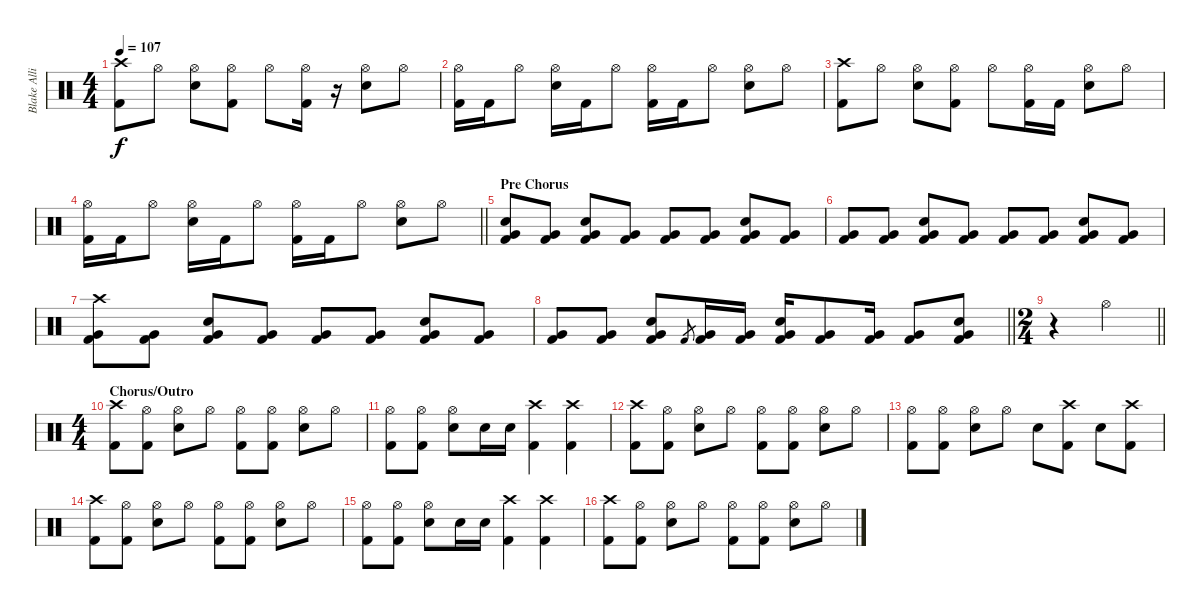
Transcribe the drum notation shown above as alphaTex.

\track ("Blake Allison (Drums)" "Blake Alli") {instrument percussion}
\staff {score}
\articulation defaults
\ts (4 4)
\tempo 107
\clef neutral
\ks c
("Crash high (hit)" "Kick (hit) 2").8{dy f} "Hi-Hat (open)".8 ("Hi-Hat (open)" "Electric Snare (hit)").8 ("Hi-Hat (open)" "Kick (hit) 2").8 "Hi-Hat (open)".8 ("Hi-Hat (open)" "Kick (hit) 2").16 r.16 ("Hi-Hat (open)" "Electric Snare (hit)").8 "Hi-Hat (open)".8 |
("Hi-Hat (open)" "Kick (hit) 2").16 "Kick (hit) 2".16 "Hi-Hat (open)".8 ("Hi-Hat (open)" "Electric Snare (hit)").16 "Kick (hit) 2".16 "Hi-Hat (open)".8 ("Hi-Hat (open)" "Kick (hit) 2").16 "Kick (hit) 2".16 "Hi-Hat (open)".8 ("Hi-Hat (open)" "Electric Snare (hit)").8 "Hi-Hat (open)".8 |
("Crash high (hit)" "Kick (hit) 2").8 "Hi-Hat (open)".8 ("Hi-Hat (open)" "Electric Snare (hit)").8 ("Hi-Hat (open)" "Kick (hit) 2").8 "Hi-Hat (open)".8 ("Hi-Hat (open)" "Kick (hit) 2").16 "Kick (hit) 2".16 ("Hi-Hat (open)" "Electric Snare (hit)").8 "Hi-Hat (open)".8 |
\barLineRight lightlight
("Hi-Hat (open)" "Kick (hit) 2").16 "Kick (hit) 2".16 "Hi-Hat (open)".8 ("Hi-Hat (open)" "Electric Snare (hit)").16 "Kick (hit) 2".16 "Hi-Hat (open)".8 ("Hi-Hat (open)" "Kick (hit) 2").16 "Kick (hit) 2".16 "Hi-Hat (open)".8 ("Hi-Hat (open)" "Electric Snare (hit)").8 "Hi-Hat (open)".8 |
\section ("" "Pre Chorus")
("Electric Snare (hit)" "Very Low Tom (hit)" "Kick (hit) 2").8{volume 14} ("Very Low Tom (hit)" "Kick (hit) 2").8 ("Electric Snare (hit)" "Very Low Tom (hit)" "Kick (hit) 2").8 ("Very Low Tom (hit)" "Kick (hit) 2").8 ("Very Low Tom (hit)" "Kick (hit) 2").8 ("Very Low Tom (hit)" "Kick (hit) 2").8 ("Electric Snare (hit)" "Very Low Tom (hit)" "Kick (hit) 2").8 ("Very Low Tom (hit)" "Kick (hit) 2").8 |
("Very Low Tom (hit)" "Kick (hit) 2").8 ("Very Low Tom (hit)" "Kick (hit) 2").8 ("Electric Snare (hit)" "Very Low Tom (hit)" "Kick (hit) 2").8 ("Very Low Tom (hit)" "Kick (hit) 2").8 ("Very Low Tom (hit)" "Kick (hit) 2").8 ("Very Low Tom (hit)" "Kick (hit) 2").8 ("Electric Snare (hit)" "Very Low Tom (hit)" "Kick (hit) 2").8 ("Very Low Tom (hit)" "Kick (hit) 2").8 |
("Crash high (hit)" "Very Low Tom (hit)" "Kick (hit) 2").8 ("Very Low Tom (hit)" "Kick (hit) 2").8 ("Electric Snare (hit)" "Very Low Tom (hit)" "Kick (hit) 2").8 ("Very Low Tom (hit)" "Kick (hit) 2").8 ("Very Low Tom (hit)" "Kick (hit) 2").8 ("Very Low Tom (hit)" "Kick (hit) 2").8 ("Electric Snare (hit)" "Very Low Tom (hit)" "Kick (hit) 2").8 ("Very Low Tom (hit)" "Kick (hit) 2").8 |
\barLineRight lightlight
("Very Low Tom (hit)" "Kick (hit) 2").8 ("Very Low Tom (hit)" "Kick (hit) 2").8 ("Electric Snare (hit)" "Very Low Tom (hit)" "Kick (hit) 2").8 "Kick (hit) 2".8{gr} ("Very Low Tom (hit)" "Kick (hit) 2").16 ("Very Low Tom (hit)" "Kick (hit) 2").16 ("Electric Snare (hit)" "Very Low Tom (hit)" "Kick (hit) 2").16 ("Very Low Tom (hit)" "Kick (hit) 2").8 ("Very Low Tom (hit)" "Kick (hit) 2").16 ("Very Low Tom (hit)" "Kick (hit) 2").8 ("Electric Snare (hit)" "Very Low Tom (hit)" "Kick (hit) 2").8 |
\ts (2 4)
\barLineRight lightlight
r.4 "Hi-Hat (open)".4 |
\ts (4 4)
\section ("" "Chorus/Outro")
("Crash high (hit)" "Kick (hit) 2").8 ("Hi-Hat (open)" "Kick (hit) 2").8 ("Hi-Hat (open)" "Electric Snare (hit)").8 "Hi-Hat (open)".8 ("Hi-Hat (open)" "Kick (hit) 2").8 ("Hi-Hat (open)" "Kick (hit) 2").8 ("Hi-Hat (open)" "Electric Snare (hit)").8 "Hi-Hat (open)".8 |
("Hi-Hat (open)" "Kick (hit) 2").8 ("Hi-Hat (open)" "Kick (hit) 2").8 ("Hi-Hat (open)" "Electric Snare (hit)").8 "Electric Snare (hit)".16 "Electric Snare (hit)".16 ("Crash high (hit)" "Kick (hit) 2").4 ("Crash high (hit)" "Kick (hit) 2").4 |
("Crash high (hit)" "Kick (hit) 2").8 ("Hi-Hat (open)" "Kick (hit) 2").8 ("Hi-Hat (open)" "Electric Snare (hit)").8 "Hi-Hat (open)".8 ("Hi-Hat (open)" "Kick (hit) 2").8 ("Hi-Hat (open)" "Kick (hit) 2").8 ("Hi-Hat (open)" "Electric Snare (hit)").8 "Hi-Hat (open)".8 |
("Hi-Hat (open)" "Kick (hit) 2").8 ("Hi-Hat (open)" "Kick (hit) 2").8 ("Hi-Hat (open)" "Electric Snare (hit)").8 "Hi-Hat (open)".8 "Electric Snare (hit)".8 ("Crash high (hit)" "Kick (hit) 2").8 "Electric Snare (hit)".8 ("Crash high (hit)" "Kick (hit) 2").8 |
("Crash high (hit)" "Kick (hit) 2").8 ("Hi-Hat (open)" "Kick (hit) 2").8 ("Hi-Hat (open)" "Electric Snare (hit)").8 "Hi-Hat (open)".8 ("Hi-Hat (open)" "Kick (hit) 2").8 ("Hi-Hat (open)" "Kick (hit) 2").8 ("Hi-Hat (open)" "Electric Snare (hit)").8 "Hi-Hat (open)".8 |
("Hi-Hat (open)" "Kick (hit) 2").8 ("Hi-Hat (open)" "Kick (hit) 2").8 ("Hi-Hat (open)" "Electric Snare (hit)").8 "Electric Snare (hit)".16 "Electric Snare (hit)".16 ("Crash high (hit)" "Kick (hit) 2").4 ("Crash high (hit)" "Kick (hit) 2").4 |
("Crash high (hit)" "Kick (hit) 2").8 ("Hi-Hat (open)" "Kick (hit) 2").8 ("Hi-Hat (open)" "Electric Snare (hit)").8 "Hi-Hat (open)".8 ("Hi-Hat (open)" "Kick (hit) 2").8 ("Hi-Hat (open)" "Kick (hit) 2").8 ("Hi-Hat (open)" "Electric Snare (hit)").8 "Hi-Hat (open)".8
